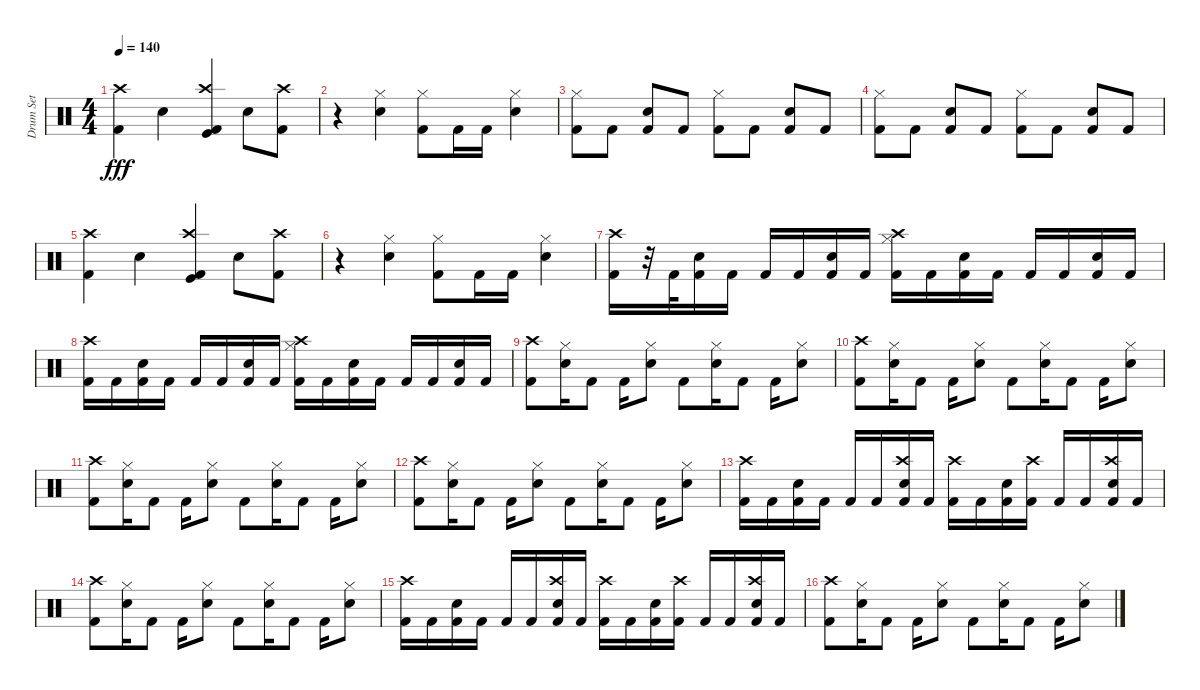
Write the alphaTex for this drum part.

\track ("Drum Set" "Drum Set") {instrument percussion}
\staff {score}
\articulation defaults
\ts (4 4)
\tempo 140
\clef neutral
\ks c
("Kick (hit) 2" "Crash high (hit)").4{dy fff} "Electric Snare (hit)".4 ("Kick (hit)" "Crash high (hit)" "Kick (hit) 2").4 "Electric Snare (hit)".8 ("Kick (hit) 2" "Crash high (hit)").8 |
r.4 ("Electric Snare (hit)" "Hi-Hat (closed)").4 ("Kick (hit) 2" "Hi-Hat (closed)").8 "Kick (hit) 2".16 "Kick (hit) 2".16 ("Electric Snare (hit)" "Hi-Hat (closed)").4 |
("Kick (hit) 2" "Hi-Hat (closed)").8 "Kick (hit) 2".8 ("Electric Snare (hit)" "Kick (hit) 2").8 "Kick (hit) 2".8 ("Kick (hit) 2" "Hi-Hat (closed)").8 "Kick (hit) 2".8 ("Electric Snare (hit)" "Kick (hit) 2").8 "Kick (hit) 2".8 |
("Kick (hit) 2" "Hi-Hat (closed)").8 "Kick (hit) 2".8 ("Electric Snare (hit)" "Kick (hit) 2").8 "Kick (hit) 2".8 ("Hi-Hat (closed)" "Kick (hit) 2").8 "Kick (hit) 2".8 ("Electric Snare (hit)" "Kick (hit) 2").8 "Kick (hit) 2".8 |
("Kick (hit) 2" "Crash high (hit)").4 "Electric Snare (hit)".4 ("Kick (hit)" "Crash high (hit)" "Kick (hit) 2").4 "Electric Snare (hit)".8 ("Kick (hit) 2" "Crash high (hit)").8 |
r.4 ("Electric Snare (hit)" "Hi-Hat (closed)").4 ("Kick (hit) 2" "Hi-Hat (closed)").8 "Kick (hit) 2".16 "Kick (hit) 2".16 ("Electric Snare (hit)" "Hi-Hat (closed)").4 |
("Crash high (hit)" "Kick (hit) 2").16 r.32 "Kick (hit) 2".32 ("Electric Snare (hit)" "Kick (hit) 2").16 "Kick (hit) 2".16 "Kick (hit) 2".16 "Kick (hit) 2".16 ("Electric Snare (hit)" "Kick (hit) 2").16 "Kick (hit) 2".16 ("Hi-Hat (closed)" "Kick (hit) 2" "Crash high (hit)").16 "Kick (hit) 2".16 ("Electric Snare (hit)" "Kick (hit) 2").16 "Kick (hit) 2".16 "Kick (hit) 2".16 "Kick (hit) 2".16 ("Electric Snare (hit)" "Kick (hit) 2").16 "Kick (hit) 2".16 |
("Kick (hit) 2" "Crash high (hit)").16 "Kick (hit) 2".16 ("Electric Snare (hit)" "Kick (hit) 2").16 "Kick (hit) 2".16 "Kick (hit) 2".16 "Kick (hit) 2".16 ("Electric Snare (hit)" "Kick (hit) 2").16 "Kick (hit) 2".16 ("Hi-Hat (closed)" "Kick (hit) 2" "Crash high (hit)").16 "Kick (hit) 2".16 ("Electric Snare (hit)" "Kick (hit) 2").16 "Kick (hit) 2".16 "Kick (hit) 2".16 "Kick (hit) 2".16 ("Electric Snare (hit)" "Kick (hit) 2").16 "Kick (hit) 2".16 |
("Kick (hit) 2" "Crash high (hit)").8 ("Electric Snare (hit)" "Hi-Hat (closed)").16 "Kick (hit) 2".8 "Kick (hit) 2".16 ("Electric Snare (hit)" "Hi-Hat (closed)").8 "Kick (hit) 2".8 ("Electric Snare (hit)" "Hi-Hat (closed)").16 "Kick (hit) 2".8 "Kick (hit) 2".16 ("Electric Snare (hit)" "Hi-Hat (closed)").8 |
("Kick (hit) 2" "Crash high (hit)").8 ("Electric Snare (hit)" "Hi-Hat (closed)").16 "Kick (hit) 2".8 "Kick (hit) 2".16 ("Electric Snare (hit)" "Hi-Hat (closed)").8 "Kick (hit) 2".8 ("Electric Snare (hit)" "Hi-Hat (closed)").16 "Kick (hit) 2".8 "Kick (hit) 2".16 ("Electric Snare (hit)" "Hi-Hat (closed)").8 |
("Kick (hit) 2" "Crash high (hit)").8 ("Electric Snare (hit)" "Hi-Hat (closed)").16 "Kick (hit) 2".8 "Kick (hit) 2".16 ("Electric Snare (hit)" "Hi-Hat (closed)").8 "Kick (hit) 2".8 ("Electric Snare (hit)" "Hi-Hat (closed)").16 "Kick (hit) 2".8 "Kick (hit) 2".16 ("Electric Snare (hit)" "Hi-Hat (closed)").8 |
("Kick (hit) 2" "Crash high (hit)").8 ("Electric Snare (hit)" "Hi-Hat (closed)").16 "Kick (hit) 2".8 "Kick (hit) 2".16 ("Electric Snare (hit)" "Hi-Hat (closed)").8 "Kick (hit) 2".8 ("Electric Snare (hit)" "Hi-Hat (closed)").16 "Kick (hit) 2".8 "Kick (hit) 2".16 ("Electric Snare (hit)" "Hi-Hat (closed)").8 |
("Kick (hit) 2" "Crash high (hit)").16 "Kick (hit) 2".16 ("Electric Snare (hit)" "Kick (hit) 2").16 "Kick (hit) 2".16 "Kick (hit) 2".16 "Kick (hit) 2".16 ("Electric Snare (hit)" "Kick (hit) 2" "Crash high (hit)").16 "Kick (hit) 2".16 ("Kick (hit) 2" "Crash high (hit)").16 "Kick (hit) 2".16 ("Electric Snare (hit)" "Kick (hit) 2").16 ("Crash high (hit)" "Kick (hit) 2").16 "Kick (hit) 2".16 "Kick (hit) 2".16 ("Electric Snare (hit)" "Crash high (hit)" "Kick (hit) 2").16 "Kick (hit) 2".16 |
("Kick (hit) 2" "Crash high (hit)").8 ("Electric Snare (hit)" "Hi-Hat (closed)").16 "Kick (hit) 2".8 "Kick (hit) 2".16 ("Electric Snare (hit)" "Hi-Hat (closed)").8 "Kick (hit) 2".8 ("Electric Snare (hit)" "Hi-Hat (closed)").16 "Kick (hit) 2".8 "Kick (hit) 2".16 ("Electric Snare (hit)" "Hi-Hat (closed)").8 |
("Kick (hit) 2" "Crash high (hit)").16 "Kick (hit) 2".16 ("Electric Snare (hit)" "Kick (hit) 2").16 "Kick (hit) 2".16 "Kick (hit) 2".16 "Kick (hit) 2".16 ("Electric Snare (hit)" "Kick (hit) 2" "Crash high (hit)").16 "Kick (hit) 2".16 ("Crash high (hit)" "Kick (hit) 2").16 "Kick (hit) 2".16 ("Electric Snare (hit)" "Kick (hit) 2").16 ("Kick (hit) 2" "Crash high (hit)").16 "Kick (hit) 2".16 "Kick (hit) 2".16 ("Electric Snare (hit)" "Crash high (hit)" "Kick (hit) 2").16 "Kick (hit) 2".16 |
("Kick (hit) 2" "Crash high (hit)").8 ("Electric Snare (hit)" "Hi-Hat (closed)").16 "Kick (hit) 2".8 "Kick (hit) 2".16 ("Electric Snare (hit)" "Hi-Hat (closed)").8 "Kick (hit) 2".8 ("Electric Snare (hit)" "Hi-Hat (closed)").16 "Kick (hit) 2".8 "Kick (hit) 2".16 ("Electric Snare (hit)" "Hi-Hat (closed)").8
